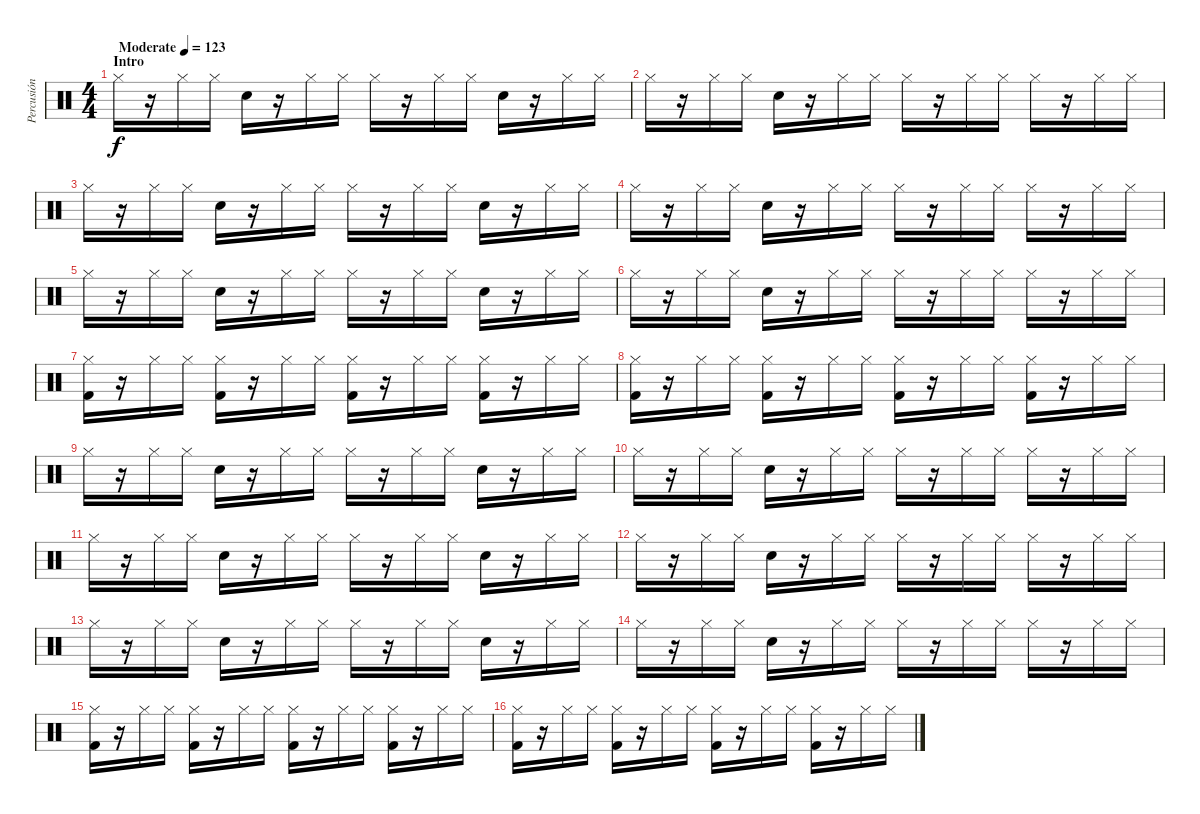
\track ("Percusión" "Percusión") {instrument percussion}
\staff {score}
\articulation defaults
\ts (4 4)
\section ("" "Intro")
\tempo (123 "Moderate")
\clef neutral
\ks c "Hi-Hat (closed)".16{dy f}
r.16 "Hi-Hat (closed)".16 "Hi-Hat (closed)".16 "Snare (hit) 2".16 r.16 "Hi-Hat (closed)".16 "Hi-Hat (closed)".16 "Hi-Hat (closed)".16 r.16 "Hi-Hat (closed)".16 "Hi-Hat (closed)".16 "Electric Snare (hit)".16 r.16 "Hi-Hat (closed)".16 "Hi-Hat (closed)".16 |
"Hi-Hat (closed)".16 r.16 "Hi-Hat (closed)".16 "Hi-Hat (closed)".16 "Snare (hit) 2".16 r.16 "Hi-Hat (closed)".16 "Hi-Hat (closed)".16 "Hi-Hat (closed)".16 r.16 "Hi-Hat (closed)".16 "Hi-Hat (closed)".16 "Hi-Hat (closed)".16 r.16 "Hi-Hat (closed)".16 "Hi-Hat (closed)".16 |
"Hi-Hat (closed)".16 r.16 "Hi-Hat (closed)".16 "Hi-Hat (closed)".16 "Snare (hit) 2".16 r.16 "Hi-Hat (closed)".16 "Hi-Hat (closed)".16 "Hi-Hat (closed)".16 r.16 "Hi-Hat (closed)".16 "Hi-Hat (closed)".16 "Snare (hit) 2".16 r.16 "Hi-Hat (closed)".16 "Hi-Hat (closed)".16 |
"Hi-Hat (closed)".16 r.16 "Hi-Hat (closed)".16 "Hi-Hat (closed)".16 "Snare (hit) 2".16 r.16 "Hi-Hat (closed)".16 "Hi-Hat (closed)".16 "Hi-Hat (closed)".16 r.16 "Hi-Hat (closed)".16 "Hi-Hat (closed)".16 "Hi-Hat (closed)".16 r.16 "Hi-Hat (closed)".16 "Hi-Hat (closed)".16 |
"Hi-Hat (closed)".16 r.16 "Hi-Hat (closed)".16 "Hi-Hat (closed)".16 "Snare (hit) 2".16 r.16 "Hi-Hat (closed)".16 "Hi-Hat (closed)".16 "Hi-Hat (closed)".16 r.16 "Hi-Hat (closed)".16 "Hi-Hat (closed)".16 "Snare (hit) 2".16 r.16 "Hi-Hat (closed)".16 "Hi-Hat (closed)".16 |
"Hi-Hat (closed)".16 r.16 "Hi-Hat (closed)".16 "Hi-Hat (closed)".16 "Snare (hit) 2".16 r.16 "Hi-Hat (closed)".16 "Hi-Hat (closed)".16 "Hi-Hat (closed)".16 r.16 "Hi-Hat (closed)".16 "Hi-Hat (closed)".16 "Hi-Hat (closed)".16 r.16 "Hi-Hat (closed)".16 "Hi-Hat (closed)".16 |
("Hi-Hat (closed)" "Kick (hit) 2").16 r.16 "Hi-Hat (closed)".16 "Hi-Hat (closed)".16 ("Hi-Hat (closed)" "Kick (hit) 2").16 r.16 "Hi-Hat (closed)".16 "Hi-Hat (closed)".16 ("Hi-Hat (closed)" "Kick (hit) 2").16 r.16 "Hi-Hat (closed)".16 "Hi-Hat (closed)".16 ("Hi-Hat (closed)" "Kick (hit) 2").16 r.16 "Hi-Hat (closed)".16 "Hi-Hat (closed)".16 |
("Hi-Hat (closed)" "Kick (hit) 2").16 r.16 "Hi-Hat (closed)".16 "Hi-Hat (closed)".16 ("Hi-Hat (closed)" "Kick (hit) 2").16 r.16 "Hi-Hat (closed)".16 "Hi-Hat (closed)".16 ("Hi-Hat (closed)" "Kick (hit) 2").16 r.16 "Hi-Hat (closed)".16 "Hi-Hat (closed)".16 ("Hi-Hat (closed)" "Kick (hit) 2").16 r.16 "Hi-Hat (closed)".16 "Hi-Hat (closed)".16 |
"Hi-Hat (closed)".16 r.16 "Hi-Hat (closed)".16 "Hi-Hat (closed)".16 "Snare (hit) 2".16 r.16 "Hi-Hat (closed)".16 "Hi-Hat (closed)".16 "Hi-Hat (closed)".16 r.16 "Hi-Hat (closed)".16 "Hi-Hat (closed)".16 "Snare (hit) 2".16 r.16 "Hi-Hat (closed)".16 "Hi-Hat (closed)".16 |
"Hi-Hat (closed)".16 r.16 "Hi-Hat (closed)".16 "Hi-Hat (closed)".16 "Snare (hit) 2".16 r.16 "Hi-Hat (closed)".16 "Hi-Hat (closed)".16 "Hi-Hat (closed)".16 r.16 "Hi-Hat (closed)".16 "Hi-Hat (closed)".16 "Hi-Hat (closed)".16 r.16 "Hi-Hat (closed)".16 "Hi-Hat (closed)".16 |
"Hi-Hat (closed)".16 r.16 "Hi-Hat (closed)".16 "Hi-Hat (closed)".16 "Snare (hit) 2".16 r.16 "Hi-Hat (closed)".16 "Hi-Hat (closed)".16 "Hi-Hat (closed)".16 r.16 "Hi-Hat (closed)".16 "Hi-Hat (closed)".16 "Snare (hit) 2".16 r.16 "Hi-Hat (closed)".16 "Hi-Hat (closed)".16 |
"Hi-Hat (closed)".16 r.16 "Hi-Hat (closed)".16 "Hi-Hat (closed)".16 "Snare (hit) 2".16 r.16 "Hi-Hat (closed)".16 "Hi-Hat (closed)".16 "Hi-Hat (closed)".16 r.16 "Hi-Hat (closed)".16 "Hi-Hat (closed)".16 "Hi-Hat (closed)".16 r.16 "Hi-Hat (closed)".16 "Hi-Hat (closed)".16 |
"Hi-Hat (closed)".16 r.16 "Hi-Hat (closed)".16 "Hi-Hat (closed)".16 "Snare (hit) 2".16 r.16 "Hi-Hat (closed)".16 "Hi-Hat (closed)".16 "Hi-Hat (closed)".16 r.16 "Hi-Hat (closed)".16 "Hi-Hat (closed)".16 "Snare (hit) 2".16 r.16 "Hi-Hat (closed)".16 "Hi-Hat (closed)".16 |
"Hi-Hat (closed)".16 r.16 "Hi-Hat (closed)".16 "Hi-Hat (closed)".16 "Snare (hit) 2".16 r.16 "Hi-Hat (closed)".16 "Hi-Hat (closed)".16 "Hi-Hat (closed)".16 r.16 "Hi-Hat (closed)".16 "Hi-Hat (closed)".16 "Hi-Hat (closed)".16 r.16 "Hi-Hat (closed)".16 "Hi-Hat (closed)".16 |
("Hi-Hat (closed)" "Kick (hit) 2").16 r.16 "Hi-Hat (closed)".16 "Hi-Hat (closed)".16 ("Hi-Hat (closed)" "Kick (hit) 2").16 r.16 "Hi-Hat (closed)".16 "Hi-Hat (closed)".16 ("Hi-Hat (closed)" "Kick (hit) 2").16 r.16 "Hi-Hat (closed)".16 "Hi-Hat (closed)".16 ("Hi-Hat (closed)" "Kick (hit) 2").16 r.16 "Hi-Hat (closed)".16 "Hi-Hat (closed)".16 |
("Hi-Hat (closed)" "Kick (hit) 2").16 r.16 "Hi-Hat (closed)".16 "Hi-Hat (closed)".16 ("Hi-Hat (closed)" "Kick (hit) 2").16 r.16 "Hi-Hat (closed)".16 "Hi-Hat (closed)".16 ("Hi-Hat (closed)" "Kick (hit) 2").16 r.16 "Hi-Hat (closed)".16 "Hi-Hat (closed)".16 ("Hi-Hat (closed)" "Kick (hit) 2").16 r.16 "Hi-Hat (closed)".16 "Hi-Hat (closed)".16
